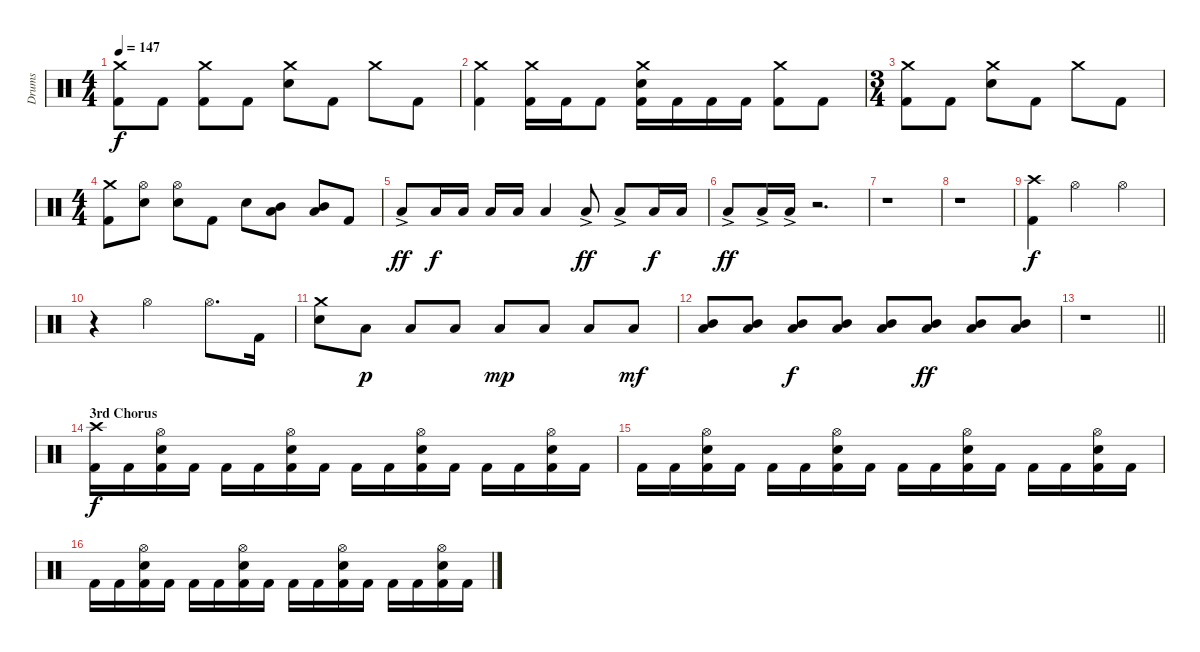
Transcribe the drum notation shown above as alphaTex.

\track ("Drums" "Drums") {instrument percussion}
\staff {score}
\articulation defaults
\ts (4 4)
\tempo 147
\clef neutral
\ks c
("Crash medium (hit)" "Kick (hit) 2").8{dy f} "Kick (hit) 2".8 ("Crash medium (hit)" "Kick (hit) 2").8 "Kick (hit) 2".8 ("Crash medium (hit)" "Snare (hit) 2").8 "Kick (hit) 2".8 "Crash medium (hit)".8 "Kick (hit) 2".8 |
("Crash medium (hit)" "Kick (hit) 2").4 ("Crash medium (hit)" "Kick (hit) 2").16 "Kick (hit) 2".16 "Kick (hit) 2".8 ("Crash medium (hit)" "Snare (hit) 2" "Kick (hit) 2").16 "Kick (hit) 2".16 "Kick (hit) 2".16 "Kick (hit) 2".16 ("Crash medium (hit)" "Kick (hit) 2").8 "Kick (hit) 2".8 |
\ts (3 4)
("Crash medium (hit)" "Kick (hit) 2").8 "Kick (hit) 2".8 ("Crash medium (hit)" "Snare (hit) 2").8 "Kick (hit) 2".8 "Crash medium (hit)".8 "Kick (hit) 2".8 |
\ts (4 4)
("Crash medium (hit)" "Kick (hit) 2").8 ("Hi-Hat (open)" "Snare (hit) 2").8 ("Hi-Hat (open)" "Snare (hit) 2").8 "Kick (hit) 2".8 "Snare (hit) 2".8 ("Mid Tom (hit)" "Low Floor Tom (hit)").8 ("Mid Tom (hit)" "Low Floor Tom (hit)").8 "Kick (hit) 2".8 |
"Low Floor Tom (hit)"{ac}.8{dy ff} "Low Floor Tom (hit)".16{dy f} "Low Floor Tom (hit)".16 "Low Floor Tom (hit)".16 "Low Floor Tom (hit)".16 "Low Floor Tom (hit)".4 "Low Floor Tom (hit)"{ac}.8{dy ff} "Low Floor Tom (hit)"{ac}.8 "Low Floor Tom (hit)".16{dy f} "Low Floor Tom (hit)".16 |
"Low Floor Tom (hit)"{ac}.8{dy ff} "Low Floor Tom (hit)"{ac}.16 "Low Floor Tom (hit)"{ac}.16 r.2{d} |
r.1 |
r.1 |
("Crash high (hit)" "Kick (hit) 2").4{dy f} "Hi-Hat (open)".2 "Hi-Hat (open)".4 |
r.4 "Hi-Hat (open)".2 "Hi-Hat (open)".8{d} "Kick (hit) 2".16 |
("Crash medium (hit)" "Snare (hit) 2").8 "Low Floor Tom (hit)".8{dy p} "Low Floor Tom (hit)".8 "Low Floor Tom (hit)".8 "Low Floor Tom (hit)".8{dy mp} "Low Floor Tom (hit)".8 "Low Floor Tom (hit)".8 "Low Floor Tom (hit)".8{dy mf} |
("Mid Tom (hit)" "Low Floor Tom (hit)").8 ("Mid Tom (hit)" "Low Floor Tom (hit)").8 ("Mid Tom (hit)" "Low Floor Tom (hit)").8{dy f} ("Mid Tom (hit)" "Low Floor Tom (hit)").8 ("Mid Tom (hit)" "Low Floor Tom (hit)").8 ("Mid Tom (hit)" "Low Floor Tom (hit)").8{dy ff} ("Mid Tom (hit)" "Low Floor Tom (hit)").8 ("Mid Tom (hit)" "Low Floor Tom (hit)").8 |
\barLineRight lightlight
r.1 |
\section ("" "3rd Chorus")
("Crash high (hit)" "Kick (hit) 2").16{dy f} "Kick (hit) 2".16 ("Hi-Hat (open)" "Snare (hit) 2" "Kick (hit) 2").16 "Kick (hit) 2".16 "Kick (hit) 2".16 "Kick (hit) 2".16 ("Hi-Hat (open)" "Snare (hit) 2" "Kick (hit) 2").16 "Kick (hit) 2".16 "Kick (hit) 2".16 "Kick (hit) 2".16 ("Hi-Hat (open)" "Snare (hit) 2" "Kick (hit) 2").16 "Kick (hit) 2".16 "Kick (hit) 2".16 "Kick (hit) 2".16 ("Hi-Hat (open)" "Snare (hit) 2" "Kick (hit) 2").16 "Kick (hit) 2".16 |
"Kick (hit) 2".16 "Kick (hit) 2".16 ("Hi-Hat (open)" "Snare (hit) 2" "Kick (hit) 2").16 "Kick (hit) 2".16 "Kick (hit) 2".16 "Kick (hit) 2".16 ("Hi-Hat (open)" "Snare (hit) 2" "Kick (hit) 2").16 "Kick (hit) 2".16 "Kick (hit) 2".16 "Kick (hit) 2".16 ("Hi-Hat (open)" "Snare (hit) 2" "Kick (hit) 2").16 "Kick (hit) 2".16 "Kick (hit) 2".16 "Kick (hit) 2".16 ("Hi-Hat (open)" "Snare (hit) 2" "Kick (hit) 2").16 "Kick (hit) 2".16 |
"Kick (hit) 2".16 "Kick (hit) 2".16 ("Hi-Hat (open)" "Snare (hit) 2" "Kick (hit) 2").16 "Kick (hit) 2".16 "Kick (hit) 2".16 "Kick (hit) 2".16 ("Hi-Hat (open)" "Snare (hit) 2" "Kick (hit) 2").16 "Kick (hit) 2".16 "Kick (hit) 2".16 "Kick (hit) 2".16 ("Hi-Hat (open)" "Snare (hit) 2" "Kick (hit) 2").16 "Kick (hit) 2".16 "Kick (hit) 2".16 "Kick (hit) 2".16 ("Hi-Hat (open)" "Snare (hit) 2" "Kick (hit) 2").16 "Kick (hit) 2".16
